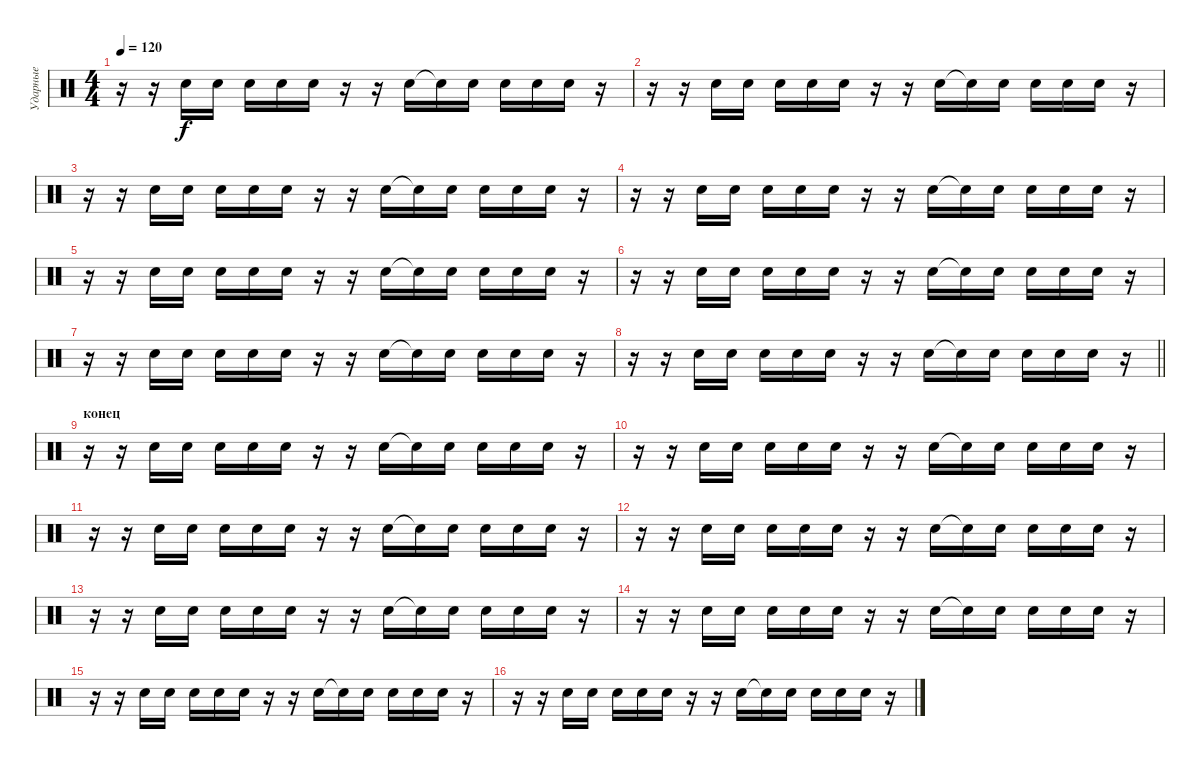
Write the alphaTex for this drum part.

\track ("Ударные" "Ударные") {instrument percussion}
\staff {score}
\articulation defaults
\ts (4 4)
\tempo 120
\clef neutral
\ks c
r.16{dy f} r.16 "Hand Clap (hit)".16 "Hand Clap (hit)".16 "Hand Clap (hit)".16 "Hand Clap (hit)".16 "Hand Clap (hit)".16 r.16 r.16 "Hand Clap (hit)".16 "Hand Clap (hit)"{t}.16 "Hand Clap (hit)".16 "Hand Clap (hit)".16 "Hand Clap (hit)".16 "Hand Clap (hit)".16 r.16 |
r.16 r.16 "Hand Clap (hit)".16 "Hand Clap (hit)".16 "Hand Clap (hit)".16 "Hand Clap (hit)".16 "Hand Clap (hit)".16 r.16 r.16 "Hand Clap (hit)".16 "Hand Clap (hit)"{t}.16 "Hand Clap (hit)".16 "Hand Clap (hit)".16 "Hand Clap (hit)".16 "Hand Clap (hit)".16 r.16 |
r.16 r.16 "Hand Clap (hit)".16 "Hand Clap (hit)".16 "Hand Clap (hit)".16 "Hand Clap (hit)".16 "Hand Clap (hit)".16 r.16 r.16 "Hand Clap (hit)".16 "Hand Clap (hit)"{t}.16 "Hand Clap (hit)".16 "Hand Clap (hit)".16 "Hand Clap (hit)".16 "Hand Clap (hit)".16 r.16 |
r.16 r.16 "Hand Clap (hit)".16 "Hand Clap (hit)".16 "Hand Clap (hit)".16 "Hand Clap (hit)".16 "Hand Clap (hit)".16 r.16 r.16 "Hand Clap (hit)".16 "Hand Clap (hit)"{t}.16 "Hand Clap (hit)".16 "Hand Clap (hit)".16 "Hand Clap (hit)".16 "Hand Clap (hit)".16 r.16 |
r.16 r.16 "Hand Clap (hit)".16 "Hand Clap (hit)".16 "Hand Clap (hit)".16 "Hand Clap (hit)".16 "Hand Clap (hit)".16 r.16 r.16 "Hand Clap (hit)".16 "Hand Clap (hit)"{t}.16 "Hand Clap (hit)".16 "Hand Clap (hit)".16 "Hand Clap (hit)".16 "Hand Clap (hit)".16 r.16 |
r.16 r.16 "Hand Clap (hit)".16 "Hand Clap (hit)".16 "Hand Clap (hit)".16 "Hand Clap (hit)".16 "Hand Clap (hit)".16 r.16 r.16 "Hand Clap (hit)".16 "Hand Clap (hit)"{t}.16 "Hand Clap (hit)".16 "Hand Clap (hit)".16 "Hand Clap (hit)".16 "Hand Clap (hit)".16 r.16 |
r.16 r.16 "Hand Clap (hit)".16 "Hand Clap (hit)".16 "Hand Clap (hit)".16 "Hand Clap (hit)".16 "Hand Clap (hit)".16 r.16 r.16 "Hand Clap (hit)".16 "Hand Clap (hit)"{t}.16 "Hand Clap (hit)".16 "Hand Clap (hit)".16 "Hand Clap (hit)".16 "Hand Clap (hit)".16 r.16 |
\barLineRight lightlight
r.16 r.16 "Hand Clap (hit)".16 "Hand Clap (hit)".16 "Hand Clap (hit)".16 "Hand Clap (hit)".16 "Hand Clap (hit)".16 r.16 r.16 "Hand Clap (hit)".16 "Hand Clap (hit)"{t}.16 "Hand Clap (hit)".16 "Hand Clap (hit)".16 "Hand Clap (hit)".16 "Hand Clap (hit)".16 r.16 |
\section ("" "конец")
r.16 r.16 "Hand Clap (hit)".16 "Hand Clap (hit)".16 "Hand Clap (hit)".16 "Hand Clap (hit)".16 "Hand Clap (hit)".16 r.16 r.16 "Hand Clap (hit)".16 "Hand Clap (hit)"{t}.16 "Hand Clap (hit)".16 "Hand Clap (hit)".16 "Hand Clap (hit)".16 "Hand Clap (hit)".16 r.16 |
r.16 r.16 "Hand Clap (hit)".16 "Hand Clap (hit)".16 "Hand Clap (hit)".16 "Hand Clap (hit)".16 "Hand Clap (hit)".16 r.16 r.16 "Hand Clap (hit)".16 "Hand Clap (hit)"{t}.16 "Hand Clap (hit)".16 "Hand Clap (hit)".16 "Hand Clap (hit)".16 "Hand Clap (hit)".16 r.16 |
r.16 r.16 "Hand Clap (hit)".16 "Hand Clap (hit)".16 "Hand Clap (hit)".16 "Hand Clap (hit)".16 "Hand Clap (hit)".16 r.16 r.16 "Hand Clap (hit)".16 "Hand Clap (hit)"{t}.16 "Hand Clap (hit)".16 "Hand Clap (hit)".16 "Hand Clap (hit)".16 "Hand Clap (hit)".16 r.16 |
r.16 r.16 "Hand Clap (hit)".16 "Hand Clap (hit)".16 "Hand Clap (hit)".16 "Hand Clap (hit)".16 "Hand Clap (hit)".16 r.16 r.16 "Hand Clap (hit)".16 "Hand Clap (hit)"{t}.16 "Hand Clap (hit)".16 "Hand Clap (hit)".16 "Hand Clap (hit)".16 "Hand Clap (hit)".16 r.16 |
r.16 r.16 "Hand Clap (hit)".16 "Hand Clap (hit)".16 "Hand Clap (hit)".16 "Hand Clap (hit)".16 "Hand Clap (hit)".16 r.16 r.16 "Hand Clap (hit)".16 "Hand Clap (hit)"{t}.16 "Hand Clap (hit)".16 "Hand Clap (hit)".16 "Hand Clap (hit)".16 "Hand Clap (hit)".16 r.16 |
r.16 r.16 "Hand Clap (hit)".16 "Hand Clap (hit)".16 "Hand Clap (hit)".16 "Hand Clap (hit)".16 "Hand Clap (hit)".16 r.16 r.16 "Hand Clap (hit)".16 "Hand Clap (hit)"{t}.16 "Hand Clap (hit)".16 "Hand Clap (hit)".16 "Hand Clap (hit)".16 "Hand Clap (hit)".16 r.16 |
r.16 r.16 "Hand Clap (hit)".16 "Hand Clap (hit)".16 "Hand Clap (hit)".16 "Hand Clap (hit)".16 "Hand Clap (hit)".16 r.16 r.16 "Hand Clap (hit)".16 "Hand Clap (hit)"{t}.16 "Hand Clap (hit)".16 "Hand Clap (hit)".16 "Hand Clap (hit)".16 "Hand Clap (hit)".16 r.16 |
r.16 r.16 "Hand Clap (hit)".16 "Hand Clap (hit)".16 "Hand Clap (hit)".16 "Hand Clap (hit)".16 "Hand Clap (hit)".16 r.16 r.16 "Hand Clap (hit)".16 "Hand Clap (hit)"{t}.16 "Hand Clap (hit)".16 "Hand Clap (hit)".16 "Hand Clap (hit)".16 "Hand Clap (hit)".16 r.16
